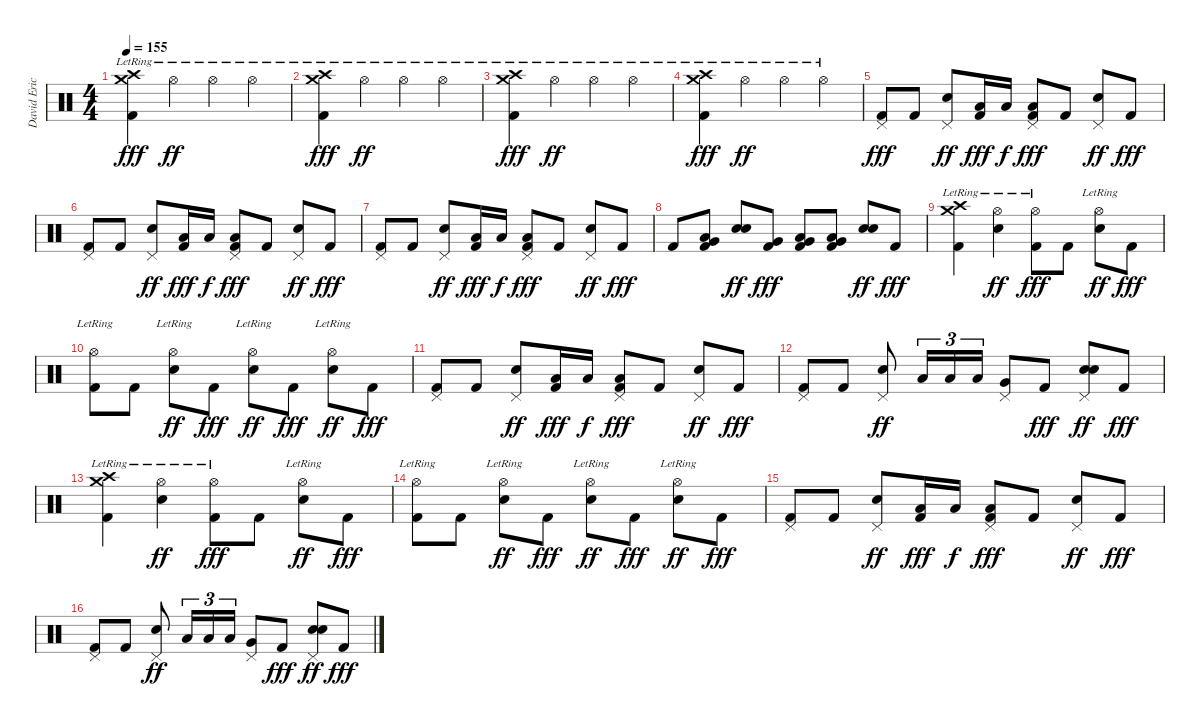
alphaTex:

\track ("David Eric Grohl" "David Eric") {instrument percussion}
\staff {score}
\articulation defaults
\ts (4 4)
\tempo 155
\clef neutral
\ks c
("Crash medium (hit)"{lr} "Crash high (hit)"{lr} "Kick (hit) 2").4{dy fff} "Hi-Hat (open)"{lr}.4{dy ff} "Hi-Hat (open)"{lr}.4 "Hi-Hat (open)"{lr}.4 |
("Crash medium (hit)"{lr} "Crash high (hit)"{lr} "Kick (hit) 2").4{dy fff} "Hi-Hat (open)"{lr}.4{dy ff} "Hi-Hat (open)"{lr}.4 "Hi-Hat (open)"{lr}.4 |
("Crash medium (hit)"{lr} "Crash high (hit)"{lr} "Kick (hit) 2").4{dy fff} "Hi-Hat (open)"{lr}.4{dy ff} "Hi-Hat (open)"{lr}.4 "Hi-Hat (open)"{lr}.4 |
("Crash medium (hit)"{lr} "Crash high (hit)"{lr} "Kick (hit) 2").4{dy fff} "Hi-Hat (open)"{lr}.4{dy ff} "Hi-Hat (open)"{lr}.4 "Hi-Hat (open)"{lr}.4 |
("Pedal Hi-Hat (hit)" "Kick (hit) 2").8{dy fff} "Kick (hit) 2".8 ("Pedal Hi-Hat (hit)" "Electric Snare (hit)").8{dy ff} ("Low Tom (hit)" "Kick (hit) 2").16{dy fff} "Low Tom (hit)".16{dy f} ("Pedal Hi-Hat (hit)" "Low Tom (hit)" "Kick (hit) 2").8{dy fff} "Kick (hit) 2".8 ("Pedal Hi-Hat (hit)" "Electric Snare (hit)").8{dy ff} "Kick (hit) 2".8{dy fff} |
("Pedal Hi-Hat (hit)" "Kick (hit) 2").8 "Kick (hit) 2".8 ("Pedal Hi-Hat (hit)" "Electric Snare (hit)").8{dy ff} ("Low Tom (hit)" "Kick (hit) 2").16{dy fff} "Low Tom (hit)".16{dy f} ("Pedal Hi-Hat (hit)" "Low Tom (hit)" "Kick (hit) 2").8{dy fff} "Kick (hit) 2".8 ("Pedal Hi-Hat (hit)" "Electric Snare (hit)").8{dy ff} "Kick (hit) 2".8{dy fff} |
("Pedal Hi-Hat (hit)" "Kick (hit) 2").8 "Kick (hit) 2".8 ("Pedal Hi-Hat (hit)" "Electric Snare (hit)").8{dy ff} ("Low Tom (hit)" "Kick (hit) 2").16{dy fff} "Low Tom (hit)".16{dy f} ("Pedal Hi-Hat (hit)" "Low Tom (hit)" "Kick (hit) 2").8{dy fff} "Kick (hit) 2".8 ("Pedal Hi-Hat (hit)" "Electric Snare (hit)").8{dy ff} "Kick (hit) 2".8{dy fff} |
"Kick (hit) 2".8 ("Low Tom (hit)" "Very Low Tom (hit)" "Kick (hit) 2").8 ("Electric Snare (hit)" "Electric Snare (hit)").8{dy ff} ("Very Low Tom (hit)" "Kick (hit) 2").8{dy fff} ("Low Tom (hit)" "Very Low Tom (hit)" "Kick (hit) 2").8 ("Low Tom (hit)" "Very Low Tom (hit)" "Kick (hit) 2").8 ("Electric Snare (hit)" "Electric Snare (hit)").8{dy ff} "Kick (hit) 2".8{dy fff} |
("Crash medium (hit)"{lr} "Crash high (hit)"{lr} "Kick (hit) 2").4 ("Hi-Hat (open)"{lr} "Electric Snare (hit)").4{dy ff} ("Hi-Hat (open)"{lr} "Kick (hit) 2").8{dy fff} "Kick (hit) 2".8 ("Hi-Hat (open)"{lr} "Electric Snare (hit)").8{dy ff} "Kick (hit) 2".8{dy fff} |
("Hi-Hat (open)"{lr} "Kick (hit) 2").8 "Kick (hit) 2".8 ("Hi-Hat (open)"{lr} "Electric Snare (hit)").8{dy ff} "Kick (hit) 2".8{dy fff} ("Hi-Hat (open)"{lr} "Electric Snare (hit)").8{dy ff} "Kick (hit) 2".8{dy fff} ("Hi-Hat (open)"{lr} "Electric Snare (hit)").8{dy ff} "Kick (hit) 2".8{dy fff} |
("Pedal Hi-Hat (hit)" "Kick (hit) 2").8 "Kick (hit) 2".8 ("Pedal Hi-Hat (hit)" "Electric Snare (hit)").8{dy ff} ("Low Tom (hit)" "Kick (hit) 2").16{dy fff} "Low Tom (hit)".16{dy f} ("Pedal Hi-Hat (hit)" "Low Tom (hit)" "Kick (hit) 2").8{dy fff} "Kick (hit) 2".8 ("Pedal Hi-Hat (hit)" "Electric Snare (hit)").8{dy ff} "Kick (hit) 2".8{dy fff} |
("Pedal Hi-Hat (hit)" "Kick (hit) 2").8 "Kick (hit) 2".8 ("Pedal Hi-Hat (hit)" "Electric Snare (hit)").8{dy ff} "Low Tom (hit)".16{tu (3 2)} "Low Tom (hit)".16{tu (3 2)} "Low Tom (hit)".16{tu (3 2)} ("Pedal Hi-Hat (hit)" "Very Low Tom (hit)").8 "Kick (hit) 2".8{dy fff} ("Pedal Hi-Hat (hit)" "Electric Snare (hit)" "Electric Snare (hit)").8{dy ff} "Kick (hit) 2".8{dy fff} |
("Crash medium (hit)"{lr} "Crash high (hit)"{lr} "Kick (hit) 2").4 ("Hi-Hat (open)"{lr} "Electric Snare (hit)").4{dy ff} ("Hi-Hat (open)"{lr} "Kick (hit) 2").8{dy fff} "Kick (hit) 2".8 ("Hi-Hat (open)"{lr} "Electric Snare (hit)").8{dy ff} "Kick (hit) 2".8{dy fff} |
("Hi-Hat (open)"{lr} "Kick (hit) 2").8 "Kick (hit) 2".8 ("Hi-Hat (open)"{lr} "Electric Snare (hit)").8{dy ff} "Kick (hit) 2".8{dy fff} ("Hi-Hat (open)"{lr} "Electric Snare (hit)").8{dy ff} "Kick (hit) 2".8{dy fff} ("Hi-Hat (open)"{lr} "Electric Snare (hit)").8{dy ff} "Kick (hit) 2".8{dy fff} |
("Pedal Hi-Hat (hit)" "Kick (hit) 2").8 "Kick (hit) 2".8 ("Pedal Hi-Hat (hit)" "Electric Snare (hit)").8{dy ff} ("Low Tom (hit)" "Kick (hit) 2").16{dy fff} "Low Tom (hit)".16{dy f} ("Pedal Hi-Hat (hit)" "Low Tom (hit)" "Kick (hit) 2").8{dy fff} "Kick (hit) 2".8 ("Pedal Hi-Hat (hit)" "Electric Snare (hit)").8{dy ff} "Kick (hit) 2".8{dy fff} |
("Pedal Hi-Hat (hit)" "Kick (hit) 2").8 "Kick (hit) 2".8 ("Pedal Hi-Hat (hit)" "Electric Snare (hit)").8{dy ff} "Low Tom (hit)".16{tu (3 2)} "Low Tom (hit)".16{tu (3 2)} "Low Tom (hit)".16{tu (3 2)} ("Pedal Hi-Hat (hit)" "Very Low Tom (hit)").8 "Kick (hit) 2".8{dy fff} ("Pedal Hi-Hat (hit)" "Electric Snare (hit)" "Electric Snare (hit)").8{dy ff} "Kick (hit) 2".8{dy fff}
